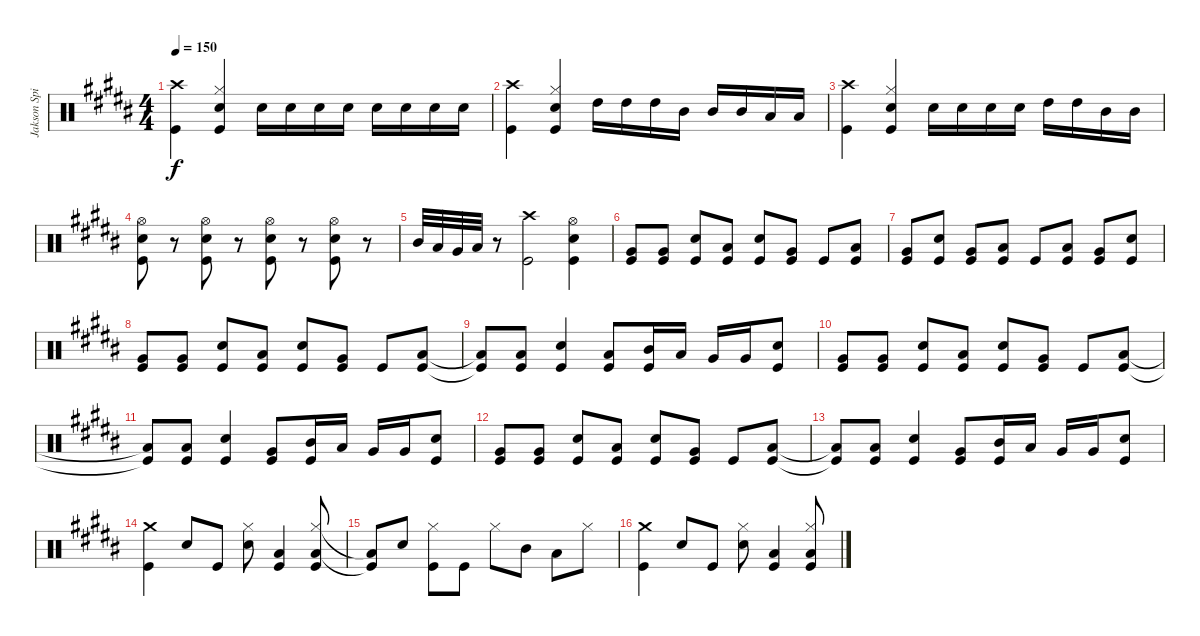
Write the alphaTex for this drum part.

\track ("Jakson Spires Drums" "Jakson Spi") {instrument percussion}
\staff {score}
\articulation defaults
\ts (4 4)
\tempo 150
\clef neutral
\ks b
("Crash high (hit)" "Kick (hit)").4{dy f} ("Hi-Hat (closed)" "Snare (hit) 2" "Kick (hit)").4 "Snare (hit) 2".16 "Snare (hit) 2".16 "Snare (hit) 2".16 "Snare (hit) 2".16 "Snare (hit) 2".16 "Snare (hit) 2".16 "Snare (hit) 2".16 "Snare (hit) 2".16 |
("Crash high (hit)" "Kick (hit)").4 ("Hi-Hat (closed)" "Snare (hit) 2" "Kick (hit)").4 "High Tom (hit)".16 "High Tom (hit)".16 "High Tom (hit)".16 "Mid Tom (hit)".16 "Mid Tom (hit)".16 "Mid Tom (hit)".16 "Low Tom (hit)".16 "Low Tom (hit)".16 |
("Crash high (hit)" "Kick (hit)").4 ("Hi-Hat (closed)" "Snare (hit) 2" "Kick (hit)").4 "Snare (hit) 2".16 "Snare (hit) 2".16 "Snare (hit) 2".16 "Snare (hit) 2".16 "High Tom (hit)".16 "High Tom (hit)".16 "Mid Tom (hit)".16 "Mid Tom (hit)".16 |
("Hi-Hat (open)" "Snare (hit) 2" "Kick (hit)").8 r.8 ("Hi-Hat (open)" "Snare (hit) 2" "Kick (hit)").8 r.8 ("Hi-Hat (open)" "Snare (hit) 2" "Kick (hit)").8 r.8 ("Hi-Hat (open)" "Snare (hit) 2" "Kick (hit)").8 r.8 |
"Mid Tom (hit)".32 "Low Tom (hit)".32 "Very Low Tom (hit)".32 "Low Floor Tom (hit)".32 r.8 ("Crash high (hit)" "Kick (hit)").2 ("Hi-Hat (open)" "Snare (hit) 2" "Kick (hit)").4 |
("Very Low Tom (hit)" "Kick (hit)").8 ("Very Low Tom (hit)" "Kick (hit)").8 ("Snare (hit) 2" "Kick (hit)").8 ("Low Floor Tom (hit)" "Kick (hit)").8 ("Snare (hit) 2" "Kick (hit)").8 ("Very Low Tom (hit)" "Kick (hit)").8 "Kick (hit)".8 ("Low Floor Tom (hit)" "Kick (hit)").8 |
("Very Low Tom (hit)" "Kick (hit)").8 ("Snare (hit) 2" "Kick (hit)").8 ("Very Low Tom (hit)" "Kick (hit)").8 ("Low Floor Tom (hit)" "Kick (hit)").8 "Kick (hit)".8 ("Low Floor Tom (hit)" "Kick (hit)").8 ("Very Low Tom (hit)" "Kick (hit)").8 ("Snare (hit) 2" "Kick (hit)").8 |
("Very Low Tom (hit)" "Kick (hit)").8 ("Very Low Tom (hit)" "Kick (hit)").8 ("Snare (hit) 2" "Kick (hit)").8 ("Low Floor Tom (hit)" "Kick (hit)").8 ("Snare (hit) 2" "Kick (hit)").8 ("Very Low Tom (hit)" "Kick (hit)").8 "Kick (hit)".8 ("Low Floor Tom (hit)" "Kick (hit)").8 |
("Low Floor Tom (hit)"{t} "Kick (hit)"{t}).8 ("Low Floor Tom (hit)" "Kick (hit)").8 ("Snare (hit) 2" "Kick (hit)").4 ("Low Floor Tom (hit)" "Kick (hit)").8 ("Mid Tom (hit)" "Kick (hit)").16 "Low Tom (hit)".16 "Very Low Tom (hit)".16 "Very Low Tom (hit)".16 ("Snare (hit) 2" "Kick (hit)").8 |
("Very Low Tom (hit)" "Kick (hit)").8 ("Very Low Tom (hit)" "Kick (hit)").8 ("Snare (hit) 2" "Kick (hit)").8 ("Low Floor Tom (hit)" "Kick (hit)").8 ("Snare (hit) 2" "Kick (hit)").8 ("Very Low Tom (hit)" "Kick (hit)").8 "Kick (hit)".8 ("Low Floor Tom (hit)" "Kick (hit)").8 |
("Low Floor Tom (hit)"{t} "Kick (hit)"{t}).8 ("Low Floor Tom (hit)" "Kick (hit)").8 ("Snare (hit) 2" "Kick (hit)").4 ("Very Low Tom (hit)" "Kick (hit)").8 ("Mid Tom (hit)" "Kick (hit)").16 "Low Tom (hit)".16 "Very Low Tom (hit)".16 "Very Low Tom (hit)".16 ("Snare (hit) 2" "Kick (hit)").8 |
("Very Low Tom (hit)" "Kick (hit)").8 ("Very Low Tom (hit)" "Kick (hit)").8 ("Snare (hit) 2" "Kick (hit)").8 ("Low Floor Tom (hit)" "Kick (hit)").8 ("Snare (hit) 2" "Kick (hit)").8 ("Very Low Tom (hit)" "Kick (hit)").8 "Kick (hit)".8 ("Low Floor Tom (hit)" "Kick (hit)").8 |
("Low Floor Tom (hit)"{t} "Kick (hit)"{t}).8 ("Low Floor Tom (hit)" "Kick (hit)").8 ("Snare (hit) 2" "Kick (hit)").4 ("Very Low Tom (hit)" "Kick (hit)").8 ("Mid Tom (hit)" "Kick (hit)").16 "Low Tom (hit)".16 "Very Low Tom (hit)".16 "Very Low Tom (hit)".16 ("Snare (hit) 2" "Kick (hit)").8 |
("Crash medium (hit)" "Kick (hit)").4 "Snare (hit) 2".8 "Kick (hit)".8 ("Hi-Hat (closed)" "Snare (hit) 2").8 ("Low Floor Tom (hit)" "Kick (hit)").4 ("Hi-Hat (closed)" "Low Floor Tom (hit)" "Kick (hit)").8 |
("Low Floor Tom (hit)"{t} "Kick (hit)"{t}).8 "Snare (hit) 2".8 ("Hi-Hat (closed)" "Kick (hit)").8 "Kick (hit)".8 "Hi-Hat (closed)".8 "Mid Tom (hit)".8 "Low Tom (hit)".8 "Hi-Hat (closed)".8 |
("Crash medium (hit)" "Kick (hit)").4 "Snare (hit) 2".8 "Kick (hit)".8 ("Hi-Hat (closed)" "Snare (hit) 2").8 ("Low Floor Tom (hit)" "Kick (hit)").4 ("Hi-Hat (closed)" "Low Floor Tom (hit)" "Kick (hit)").8
